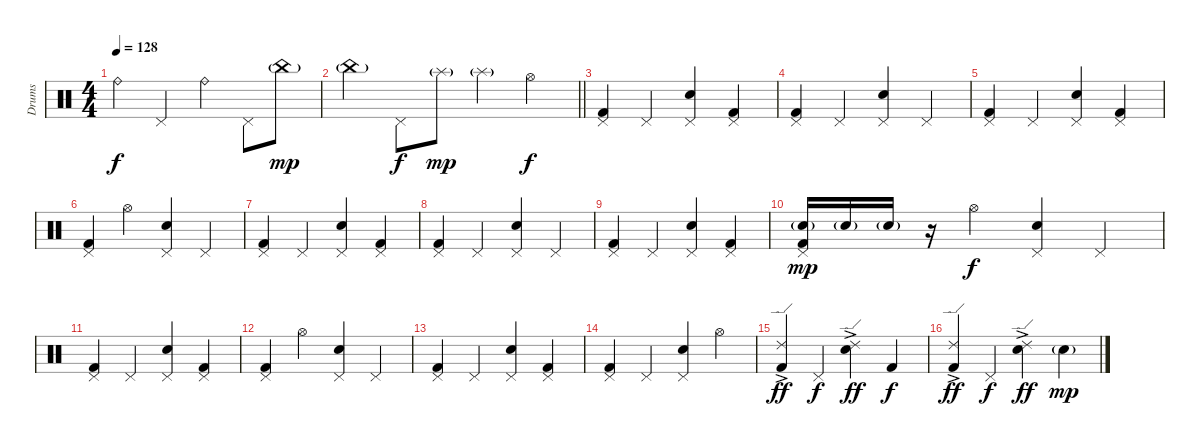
\track ("Drums" "Drums") {instrument percussion}
\staff {score}
\articulation defaults
\ts (4 4)
\tempo 128
\clef neutral
\ks c "Ride (bell)".4{dy f} "Pedal Hi-Hat (hit)".4 "Ride (bell)".4 "Pedal Hi-Hat (hit)".8 "China (hit)"{g}.8{dy mp}
|
\barLineRight lightlight "China (hit)"{g}.4 "Pedal Hi-Hat (hit)".8{dy f} "Splash (hit)"{g}.8{dy mp} "Splash (hit)"{g}.4 "Hi-Hat (open)".4{dy f}
|
("Pedal Hi-Hat (hit)" "Kick (hit) 2").4 "Pedal Hi-Hat (hit)".4 ("Pedal Hi-Hat (hit)" "Snare (hit) 2").4 ("Pedal Hi-Hat (hit)" "Kick (hit) 2").4 |
("Pedal Hi-Hat (hit)" "Kick (hit) 2").4 "Pedal Hi-Hat (hit)".4 ("Pedal Hi-Hat (hit)" "Snare (hit) 2").4 "Pedal Hi-Hat (hit)".4 |
("Pedal Hi-Hat (hit)" "Kick (hit) 2").4 "Pedal Hi-Hat (hit)".4 ("Pedal Hi-Hat (hit)" "Snare (hit) 2").4 ("Pedal Hi-Hat (hit)" "Kick (hit) 2").4 |
("Pedal Hi-Hat (hit)" "Kick (hit) 2").4 "Hi-Hat (open)".4 ("Pedal Hi-Hat (hit)" "Snare (hit) 2").4 "Pedal Hi-Hat (hit)".4 |
("Pedal Hi-Hat (hit)" "Kick (hit) 2").4 "Pedal Hi-Hat (hit)".4 ("Pedal Hi-Hat (hit)" "Snare (hit) 2").4 ("Pedal Hi-Hat (hit)" "Kick (hit) 2").4 |
("Pedal Hi-Hat (hit)" "Kick (hit) 2").4 "Pedal Hi-Hat (hit)".4 ("Pedal Hi-Hat (hit)" "Snare (hit) 2").4 "Pedal Hi-Hat (hit)".4 |
("Pedal Hi-Hat (hit)" "Kick (hit) 2").4 "Pedal Hi-Hat (hit)".4 ("Pedal Hi-Hat (hit)" "Snare (hit) 2").4 ("Pedal Hi-Hat (hit)" "Kick (hit) 2").4 |
("Pedal Hi-Hat (hit)" "Kick (hit) 2" "Snare (hit) 2"{g}).16{dy mp} "Snare (hit) 2"{g}.16 "Snare (hit) 2"{g}.16 r.16 "Hi-Hat (open)".4{dy f} ("Pedal Hi-Hat (hit)" "Snare (hit) 2").4 "Pedal Hi-Hat (hit)".4 |
("Pedal Hi-Hat (hit)" "Kick (hit) 2").4 "Pedal Hi-Hat (hit)".4 ("Pedal Hi-Hat (hit)" "Snare (hit) 2").4 ("Pedal Hi-Hat (hit)" "Kick (hit) 2").4 |
("Pedal Hi-Hat (hit)" "Kick (hit) 2").4 "Hi-Hat (open)".4 ("Pedal Hi-Hat (hit)" "Snare (hit) 2").4 "Pedal Hi-Hat (hit)".4 |
("Pedal Hi-Hat (hit)" "Kick (hit) 2").4 "Pedal Hi-Hat (hit)".4 ("Pedal Hi-Hat (hit)" "Snare (hit) 2").4 ("Pedal Hi-Hat (hit)" "Kick (hit) 2").4 |
("Pedal Hi-Hat (hit)" "Kick (hit) 2").4 "Pedal Hi-Hat (hit)".4 ("Pedal Hi-Hat (hit)" "Snare (hit) 2").4 "Hi-Hat (open)".4 |
("Kick (hit) 2"{ac} "Ride (edge) 2").4{dy ff} "Pedal Hi-Hat (hit)".4{dy f} ("Snare (hit) 2"{ac} "Ride (edge) 2").4{dy ff} "Kick (hit) 2".4{dy f} |
("Kick (hit) 2" "Ride (edge) 2"{ac}).4{dy ff} "Pedal Hi-Hat (hit)".4{dy f} ("Snare (hit) 2"{ac} "Ride (edge) 2").4{dy ff} "Snare (hit) 2"{g}.4{dy mp}
